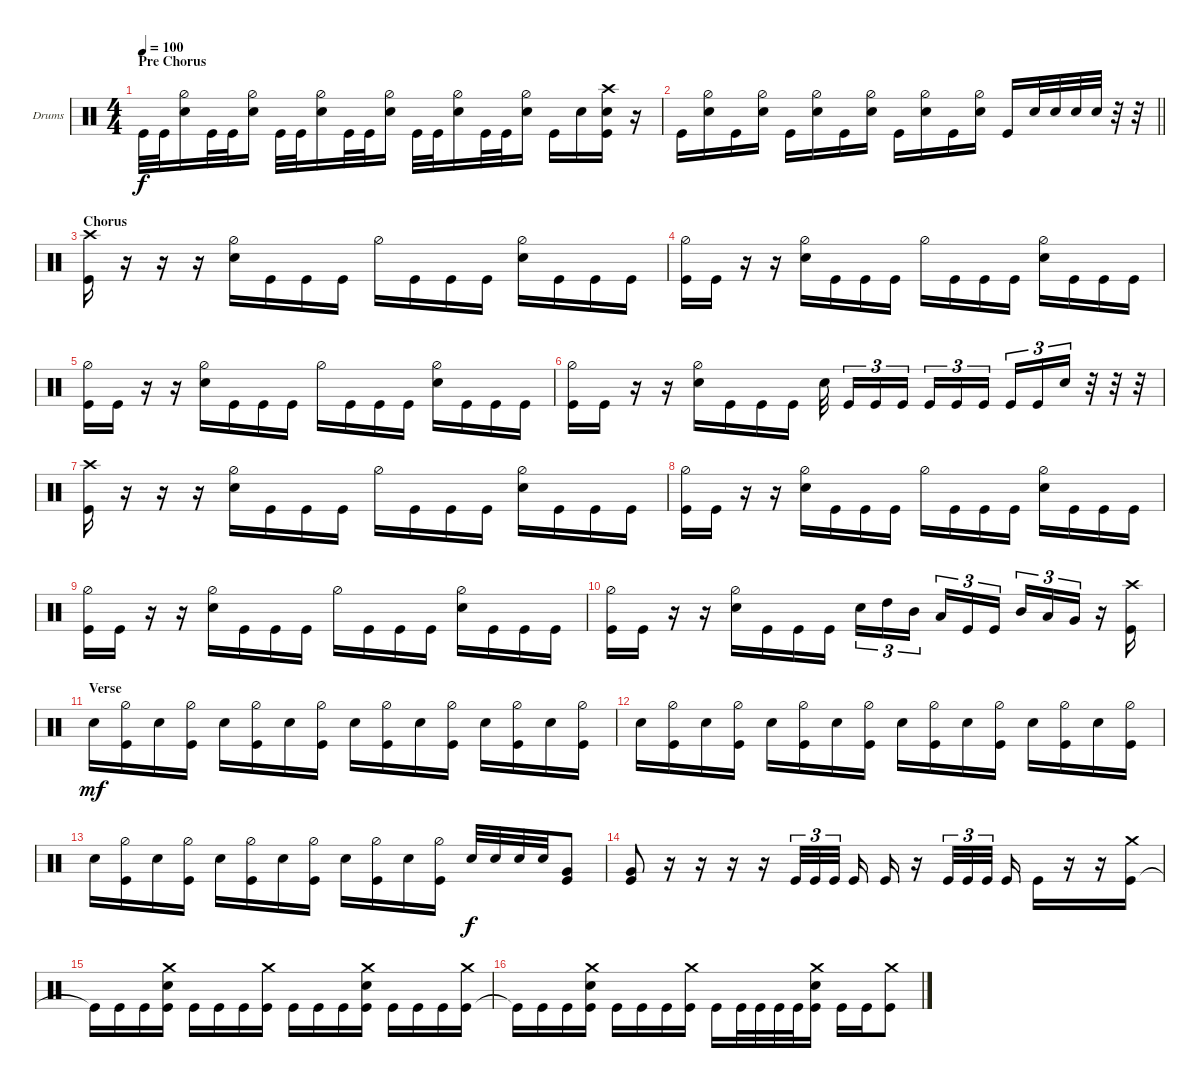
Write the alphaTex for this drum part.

\bracketExtendMode groupsimilarinstruments
\firstSystemTrackNameOrientation horizontal
\otherSystemsTrackNameOrientation horizontal
\track ("Drumkit" "Drums") {instrument percussion}
\staff {score}
\articulation defaults
\ts (4 4)
\section ("" "Pre Chorus")
\tempo 100
\clef neutral
\scale
0.333333
\ks c "Kick (hit)".32{dy f} "Kick (hit)".32
("Snare (hit) 2" "Hi-Hat (half)").16 "Kick (hit)".32 "Kick (hit)".32 ("Snare (hit) 2" "Hi-Hat (half)").16 "Kick (hit)".32 "Kick (hit)".32 ("Snare (hit) 2" "Hi-Hat (half)").16 "Kick (hit)".32 "Kick (hit)".32 ("Snare (hit) 2" "Hi-Hat (half)").16 "Kick (hit)".32 "Kick (hit)".32 ("Snare (hit) 2" "Hi-Hat (half)").16 "Kick (hit)".32 "Kick (hit)".32 ("Snare (hit) 2" "Hi-Hat (half)").16 "Kick (hit)".16 "Snare (hit) 2".16 ("Crash high (hit)" "Snare (hit) 2" "Kick (hit)").16 r.16 |
\scale
0.333333
\barLineRight lightlight "Kick (hit)".16
("Snare (hit) 2" "Hi-Hat (half)").16 "Kick (hit)".16 ("Snare (hit) 2" "Hi-Hat (half)").16 "Kick (hit)".16 ("Snare (hit) 2" "Hi-Hat (half)").16 "Kick (hit)".16 ("Snare (hit) 2" "Hi-Hat (half)").16 "Kick (hit)".16 ("Snare (hit) 2" "Hi-Hat (half)").16 "Kick (hit)".16 ("Snare (hit) 2" "Hi-Hat (half)").16 "Kick (hit)".16 "Snare (hit) 2".32 "Snare (hit) 2".32 "Snare (hit) 2".32 "Snare (hit) 2".32 r.32 r.32 |
\section ("" "Chorus")
\scale
0.333333 ("Kick (hit)" "Crash high (hit)").16 r.16 r.16 r.16 ("Snare (hit) 2" "Hi-Hat (half)").16 "Kick (hit)".16 "Kick (hit)".16 "Kick (hit)".16 "Hi-Hat (half)".16 "Kick (hit)".16 "Kick (hit)".16 "Kick (hit)".16 ("Hi-Hat (half)" "Snare (hit) 2").16 "Kick (hit)".16 "Kick (hit)".16 "Kick (hit)".16 |
\scale
0.333333 ("Kick (hit)" "Hi-Hat (half)").16 "Kick (hit)".16 r.16 r.16 ("Snare (hit) 2" "Hi-Hat (half)").16 "Kick (hit)".16 "Kick (hit)".16 "Kick (hit)".16 "Hi-Hat (half)".16 "Kick (hit)".16 "Kick (hit)".16 "Kick (hit)".16 ("Hi-Hat (half)" "Snare (hit) 2").16 "Kick (hit)".16 "Kick (hit)".16 "Kick (hit)".16 |
\scale
0.333333 ("Kick (hit)" "Hi-Hat (half)").16 "Kick (hit)".16 r.16 r.16 ("Snare (hit) 2" "Hi-Hat (half)").16 "Kick (hit)".16 "Kick (hit)".16 "Kick (hit)".16 "Hi-Hat (half)".16 "Kick (hit)".16 "Kick (hit)".16 "Kick (hit)".16 ("Hi-Hat (half)" "Snare (hit) 2").16 "Kick (hit)".16 "Kick (hit)".16 "Kick (hit)".16 |
\scale
0.333333 ("Kick (hit)" "Hi-Hat (half)").16 "Kick (hit)".16 r.16 r.16 ("Snare (hit) 2" "Hi-Hat (half)").16 "Kick (hit)".16 "Kick (hit)".16 "Kick (hit)".16 "Snare (hit) 2".32 "Kick (hit)".16{tu (3 2)} "Kick (hit)".16{tu (3 2)} "Kick (hit)".16{tu (3 2)} "Kick (hit)".16{tu (3 2)} "Kick (hit)".16{tu (3 2)} "Kick (hit)".16{tu (3 2)} "Kick (hit)".16{tu (3 2)} "Kick (hit)".16{tu (3 2)} "Snare (hit) 2".16{tu (3 2)} r.32 r.32 r.32 |
("Kick (hit)" "Crash high (hit)").16 r.16 r.16 r.16 ("Snare (hit) 2" "Hi-Hat (half)").16 "Kick (hit)".16 "Kick (hit)".16 "Kick (hit)".16 "Hi-Hat (half)".16 "Kick (hit)".16 "Kick (hit)".16 "Kick (hit)".16 ("Hi-Hat (half)" "Snare (hit) 2").16 "Kick (hit)".16 "Kick (hit)".16 "Kick (hit)".16 |
("Kick (hit)" "Hi-Hat (half)").16 "Kick (hit)".16 r.16 r.16 ("Snare (hit) 2" "Hi-Hat (half)").16 "Kick (hit)".16 "Kick (hit)".16 "Kick (hit)".16 "Hi-Hat (half)".16 "Kick (hit)".16 "Kick (hit)".16 "Kick (hit)".16 ("Hi-Hat (half)" "Snare (hit) 2").16 "Kick (hit)".16 "Kick (hit)".16 "Kick (hit)".16 |
("Kick (hit)" "Hi-Hat (half)").16 "Kick (hit)".16 r.16 r.16 ("Snare (hit) 2" "Hi-Hat (half)").16 "Kick (hit)".16 "Kick (hit)".16 "Kick (hit)".16 "Hi-Hat (half)".16 "Kick (hit)".16 "Kick (hit)".16 "Kick (hit)".16 ("Hi-Hat (half)" "Snare (hit) 2").16 "Kick (hit)".16 "Kick (hit)".16 "Kick (hit)".16 |
("Kick (hit)" "Hi-Hat (half)").16 "Kick (hit)".16 r.16 r.16 ("Snare (hit) 2" "Hi-Hat (half)").16 "Kick (hit)".16 "Kick (hit)".16 "Kick (hit)".16 "Snare (hit) 2".16{tu (3 2)} "High Tom (hit)".16{tu (3 2)} "Mid Tom (hit)".16{tu (3 2)} "Low Tom (hit)".16{tu (3 2)} "Kick (hit)".16{tu (3 2)} "Kick (hit)".16{tu (3 2)} "Mid Tom (hit)".16{tu (3 2)} "Low Tom (hit)".16{tu (3 2)} "Very Low Tom (hit)".16{tu (3 2)} r.16 ("Kick (hit)" "Crash high (hit)").16 |
\section ("" "Verse")
\scale
0.333333 "Snare (hit) 2".16{dy mf} ("Hi-Hat (half)" "Kick (hit)").16 "Snare (hit) 2".16 ("Hi-Hat (half)" "Kick (hit)").16 "Snare (hit) 2".16 ("Hi-Hat (half)" "Kick (hit)").16 "Snare (hit) 2".16 ("Hi-Hat (half)" "Kick (hit)").16 "Snare (hit) 2".16 ("Hi-Hat (half)" "Kick (hit)").16 "Snare (hit) 2".16 ("Hi-Hat (half)" "Kick (hit)").16 "Snare (hit) 2".16 ("Kick (hit)" "Hi-Hat (half)").16 "Snare (hit) 2".16 ("Kick (hit)" "Hi-Hat (half)").16 |
\scale
0.333333 "Snare (hit) 2".16 ("Hi-Hat (half)" "Kick (hit)").16 "Snare (hit) 2".16 ("Hi-Hat (half)" "Kick (hit)").16 "Snare (hit) 2".16 ("Hi-Hat (half)" "Kick (hit)").16 "Snare (hit) 2".16 ("Hi-Hat (half)" "Kick (hit)").16 "Snare (hit) 2".16 ("Hi-Hat (half)" "Kick (hit)").16 "Snare (hit) 2".16 ("Hi-Hat (half)" "Kick (hit)").16 "Snare (hit) 2".16 ("Kick (hit)" "Hi-Hat (half)").16 "Snare (hit) 2".16 ("Kick (hit)" "Hi-Hat (half)").16 |
\scale
0.262911 "Snare (hit) 2".16 ("Hi-Hat (half)" "Kick (hit)").16 "Snare (hit) 2".16 ("Hi-Hat (half)" "Kick (hit)").16 "Snare (hit) 2".16 ("Hi-Hat (half)" "Kick (hit)").16 "Snare (hit) 2".16 ("Hi-Hat (half)" "Kick (hit)").16 "Snare (hit) 2".16 ("Hi-Hat (half)" "Kick (hit)").16 "Snare (hit) 2".16 ("Hi-Hat (half)" "Kick (hit)").16 "Snare (hit) 2".32{dy f} "Snare (hit) 2".32 "Snare (hit) 2".32 "Snare (hit) 2".32 ("Very Low Tom (hit)" "Kick (hit)").8 |
("Kick (hit)" "Very Low Tom (hit)").8 r.16 r.16 r.16 r.16 "Kick (hit)".32{tu (3 2)} "Kick (hit)".32{tu (3 2)} "Kick (hit)".32{tu (3 2)} "Kick (hit)".16 "Kick (hit)".16 r.16 "Kick (hit)".32{tu (3 2)} "Kick (hit)".32{tu (3 2)} "Kick (hit)".32{tu (3 2)} "Kick (hit)".16 "Kick (hit)".16 r.16 r.16 ("Kick (hit)" "Crash medium (hit)").16 |
"Kick (hit)"{t}.16 "Kick (hit)".16 "Kick (hit)".16 ("Kick (hit)" "Snare (hit) 2" "Crash medium (hit)").16 "Kick (hit)".16 "Kick (hit)".16 "Kick (hit)".16 ("Kick (hit)" "Crash medium (hit)").16 "Kick (hit)".16 "Kick (hit)".16 "Kick (hit)".16 ("Kick (hit)" "Crash medium (hit)" "Snare (hit) 2").16 "Kick (hit)".16 "Kick (hit)".16 "Kick (hit)".16 ("Kick (hit)" "Crash medium (hit)").16 |
\scale
0.262911 "Kick (hit)"{t}.16 "Kick (hit)".16 "Kick (hit)".16 ("Kick (hit)" "Snare (hit) 2" "Crash medium (hit)").16 "Kick (hit)".16 "Kick (hit)".16 "Kick (hit)".16 ("Kick (hit)" "Crash medium (hit)").16 "Kick (hit)".16 "Kick (hit)".32 "Kick (hit)".32 "Kick (hit)".32 "Kick (hit)".32 ("Kick (hit)" "Snare (hit) 2" "Crash medium (hit)").16 "Kick (hit)".16 "Kick (hit)".16 ("Kick (hit)" "Crash medium (hit)").8
